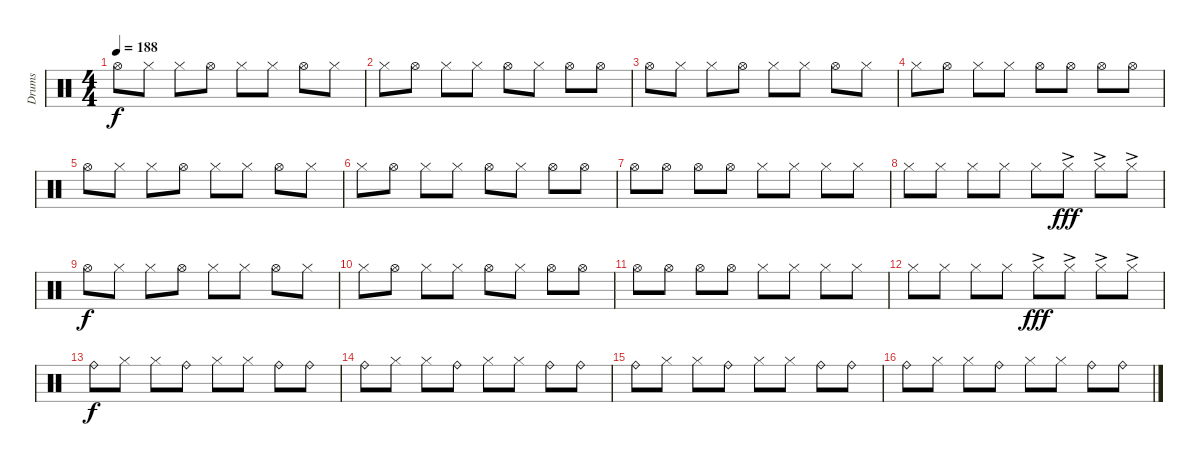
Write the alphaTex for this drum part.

\track ("Drums" "Drums") {instrument percussion}
\staff {score}
\articulation defaults
\ts (4 4)
\tempo 188
\clef neutral
\ks c "Hi-Hat (open)".8{dy f} "Hi-Hat (closed)".8 "Hi-Hat (closed)".8 "Hi-Hat (open)".8 "Hi-Hat (closed)".8 "Hi-Hat (closed)".8 "Hi-Hat (open)".8 "Hi-Hat (closed)".8
|
"Hi-Hat (closed)".8 "Hi-Hat (open)".8 "Hi-Hat (closed)".8 "Hi-Hat (closed)".8 "Hi-Hat (open)".8 "Hi-Hat (closed)".8 "Hi-Hat (open)".8 "Hi-Hat (open)".8 |
"Hi-Hat (open)".8 "Hi-Hat (closed)".8 "Hi-Hat (closed)".8 "Hi-Hat (open)".8 "Hi-Hat (closed)".8 "Hi-Hat (closed)".8 "Hi-Hat (open)".8 "Hi-Hat (closed)".8 |
"Hi-Hat (closed)".8 "Hi-Hat (open)".8 "Hi-Hat (closed)".8 "Hi-Hat (closed)".8 "Hi-Hat (open)".8 "Hi-Hat (open)".8 "Hi-Hat (open)".8 "Hi-Hat (open)".8 |
"Hi-Hat (open)".8 "Hi-Hat (closed)".8 "Hi-Hat (closed)".8 "Hi-Hat (open)".8 "Hi-Hat (closed)".8 "Hi-Hat (closed)".8 "Hi-Hat (open)".8 "Hi-Hat (closed)".8 |
"Hi-Hat (closed)".8 "Hi-Hat (open)".8 "Hi-Hat (closed)".8 "Hi-Hat (closed)".8 "Hi-Hat (open)".8 "Hi-Hat (closed)".8 "Hi-Hat (open)".8 "Hi-Hat (open)".8 |
"Hi-Hat (open)".8 "Hi-Hat (open)".8 "Hi-Hat (open)".8 "Hi-Hat (open)".8 "Hi-Hat (closed)".8 "Hi-Hat (closed)".8 "Hi-Hat (closed)".8 "Hi-Hat (closed)".8 |
"Hi-Hat (closed)".8 "Hi-Hat (closed)".8 "Hi-Hat (closed)".8 "Hi-Hat (closed)".8 "Hi-Hat (closed)".8 "Hi-Hat (closed)"{ac}.8{dy fff} "Hi-Hat (closed)"{ac}.8 "Hi-Hat (closed)"{ac}.8 |
"Hi-Hat (open)".8{dy f} "Hi-Hat (closed)".8 "Hi-Hat (closed)".8 "Hi-Hat (open)".8 "Hi-Hat (closed)".8 "Hi-Hat (closed)".8 "Hi-Hat (open)".8 "Hi-Hat (closed)".8 |
"Hi-Hat (closed)".8 "Hi-Hat (open)".8 "Hi-Hat (closed)".8 "Hi-Hat (closed)".8 "Hi-Hat (open)".8 "Hi-Hat (closed)".8 "Hi-Hat (open)".8 "Hi-Hat (open)".8 |
"Hi-Hat (open)".8 "Hi-Hat (open)".8 "Hi-Hat (open)".8 "Hi-Hat (open)".8 "Hi-Hat (closed)".8 "Hi-Hat (closed)".8 "Hi-Hat (closed)".8 "Hi-Hat (closed)".8 |
"Hi-Hat (closed)".8 "Hi-Hat (closed)".8 "Hi-Hat (closed)".8 "Hi-Hat (closed)".8 "Hi-Hat (closed)"{ac}.8{dy fff} "Hi-Hat (closed)"{ac}.8 "Hi-Hat (closed)"{ac}.8 "Hi-Hat (closed)"{ac}.8 |
"Ride (bell)".8{dy f} "Hi-Hat (closed)".8 "Hi-Hat (closed)".8 "Ride (bell)".8 "Hi-Hat (closed)".8 "Hi-Hat (closed)".8 "Ride (bell)".8 "Ride (bell)".8 |
"Ride (bell)".8 "Hi-Hat (closed)".8 "Hi-Hat (closed)".8 "Ride (bell)".8 "Hi-Hat (closed)".8 "Hi-Hat (closed)".8 "Ride (bell)".8 "Ride (bell)".8 |
"Ride (bell)".8 "Hi-Hat (closed)".8 "Hi-Hat (closed)".8 "Ride (bell)".8 "Hi-Hat (closed)".8 "Hi-Hat (closed)".8 "Ride (bell)".8 "Ride (bell)".8 |
"Ride (bell)".8 "Hi-Hat (closed)".8 "Hi-Hat (closed)".8 "Ride (bell)".8 "Hi-Hat (closed)".8 "Hi-Hat (closed)".8 "Ride (bell)".8 "Ride (bell)".8
